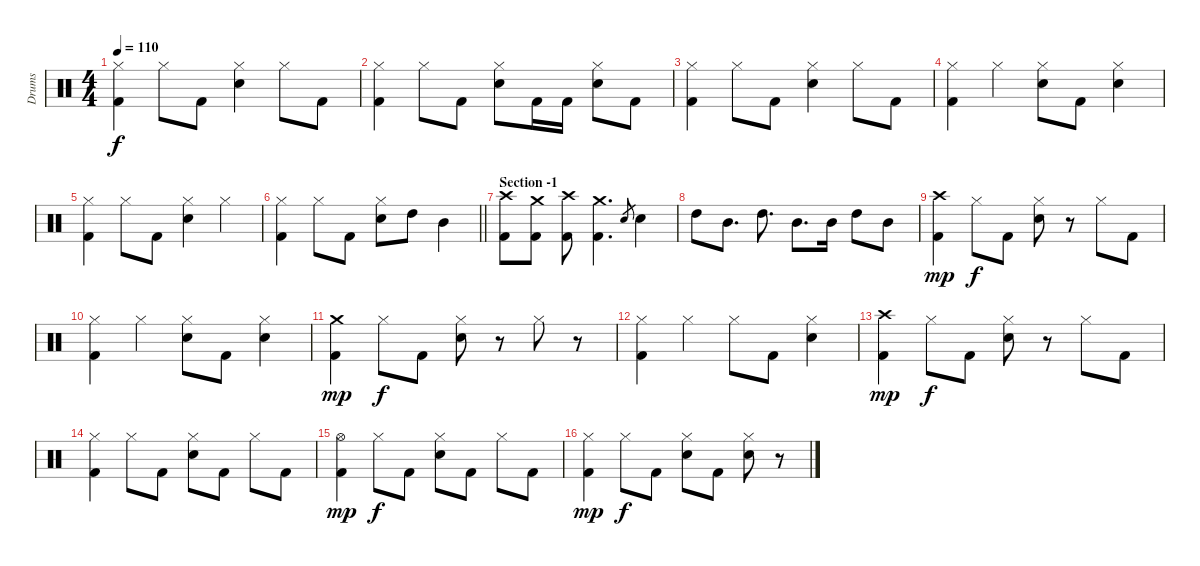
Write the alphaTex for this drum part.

\track ("Drums" "Drums") {instrument percussion}
\staff {score}
\articulation defaults
\ts (4 4)
\tempo 110
\clef neutral
\ks c
("Hi-Hat (closed)" "Kick (hit) 2").4{dy f} "Hi-Hat (closed)".8 "Kick (hit) 2".8 ("Hi-Hat (closed)" "Snare (hit) 2").4 "Hi-Hat (closed)".8 "Kick (hit) 2".8 |
("Hi-Hat (closed)" "Kick (hit) 2").4 "Hi-Hat (closed)".8 "Kick (hit) 2".8 ("Hi-Hat (closed)" "Snare (hit) 2").8 "Kick (hit) 2".16 "Kick (hit) 2".16 ("Hi-Hat (closed)" "Snare (hit) 2").8 "Kick (hit) 2".8 |
("Hi-Hat (closed)" "Kick (hit) 2").4 "Hi-Hat (closed)".8 "Kick (hit) 2".8 ("Hi-Hat (closed)" "Snare (hit) 2").4 "Hi-Hat (closed)".8 "Kick (hit) 2".8 |
("Hi-Hat (closed)" "Kick (hit) 2").4 "Hi-Hat (closed)".4 ("Hi-Hat (closed)" "Snare (hit) 2").8 "Kick (hit) 2".8 ("Hi-Hat (closed)" "Snare (hit) 2").4 |
("Hi-Hat (closed)" "Kick (hit) 2").4 "Hi-Hat (closed)".8 "Kick (hit) 2".8 ("Hi-Hat (closed)" "Snare (hit) 2").4 "Hi-Hat (closed)".4 |
\barLineRight lightlight
("Hi-Hat (closed)" "Kick (hit) 2").4 "Hi-Hat (closed)".8 "Kick (hit) 2".8 ("Hi-Hat (closed)" "Snare (hit) 2").8 "High Tom (hit)".8 "Mid Tom (hit)".4 |
\section ("" "Section -1")
("Crash high (hit)" "Kick (hit) 2").8 ("Crash medium (hit)" "Kick (hit) 2").8 ("Crash high (hit)" "Kick (hit) 2").8 ("Crash medium (hit)" "Kick (hit) 2").4{d} "Snare (hit) 2".8{gr} "Snare (hit) 2".4 |
"High Tom (hit)".8 "Mid Tom (hit)".8{d} "High Tom (hit)".8{d} "Mid Tom (hit)".8{d} "Mid Tom (hit)".16 "High Tom (hit)".8 "Mid Tom (hit)".8 |
("Crash high (hit)" "Kick (hit) 2").4{dy mp} "Hi-Hat (closed)".8{dy f} "Kick (hit) 2".8 ("Hi-Hat (closed)" "Snare (hit) 2").8 r.8 "Hi-Hat (closed)".8 "Kick (hit) 2".8 |
("Hi-Hat (closed)" "Kick (hit) 2").4 "Hi-Hat (closed)".4 ("Hi-Hat (closed)" "Snare (hit) 2").8 "Kick (hit) 2".8 ("Hi-Hat (closed)" "Snare (hit) 2").4 |
("Crash medium (hit)" "Kick (hit) 2").4{dy mp} "Hi-Hat (closed)".8{dy f} "Kick (hit) 2".8 ("Hi-Hat (closed)" "Snare (hit) 2").8 r.8 "Hi-Hat (closed)".8 r.8 |
("Hi-Hat (closed)" "Kick (hit) 2").4 "Hi-Hat (closed)".4 "Hi-Hat (closed)".8 "Kick (hit) 2".8 ("Hi-Hat (closed)" "Snare (hit) 2").4 |
("Crash high (hit)" "Kick (hit) 2").4{dy mp} "Hi-Hat (closed)".8{dy f} "Kick (hit) 2".8 ("Hi-Hat (closed)" "Snare (hit) 2").8 r.8 "Hi-Hat (closed)".8 "Kick (hit) 2".8 |
("Hi-Hat (closed)" "Kick (hit) 2").4 "Hi-Hat (closed)".8 "Kick (hit) 2".8 ("Hi-Hat (closed)" "Snare (hit) 2").8 "Kick (hit) 2".8 "Hi-Hat (closed)".8 "Kick (hit) 2".8 |
("Hi-Hat (open)" "Kick (hit) 2").4{dy mp} "Hi-Hat (closed)".8{dy f} "Kick (hit) 2".8 ("Hi-Hat (closed)" "Snare (hit) 2").8 "Kick (hit) 2".8 "Hi-Hat (closed)".8 "Kick (hit) 2".8 |
("Hi-Hat (closed)" "Kick (hit) 2").4{dy mp} "Hi-Hat (closed)".8{dy f} "Kick (hit) 2".8 ("Hi-Hat (closed)" "Snare (hit) 2").8 "Kick (hit) 2".8 ("Hi-Hat (closed)" "Snare (hit) 2").8 r.8
